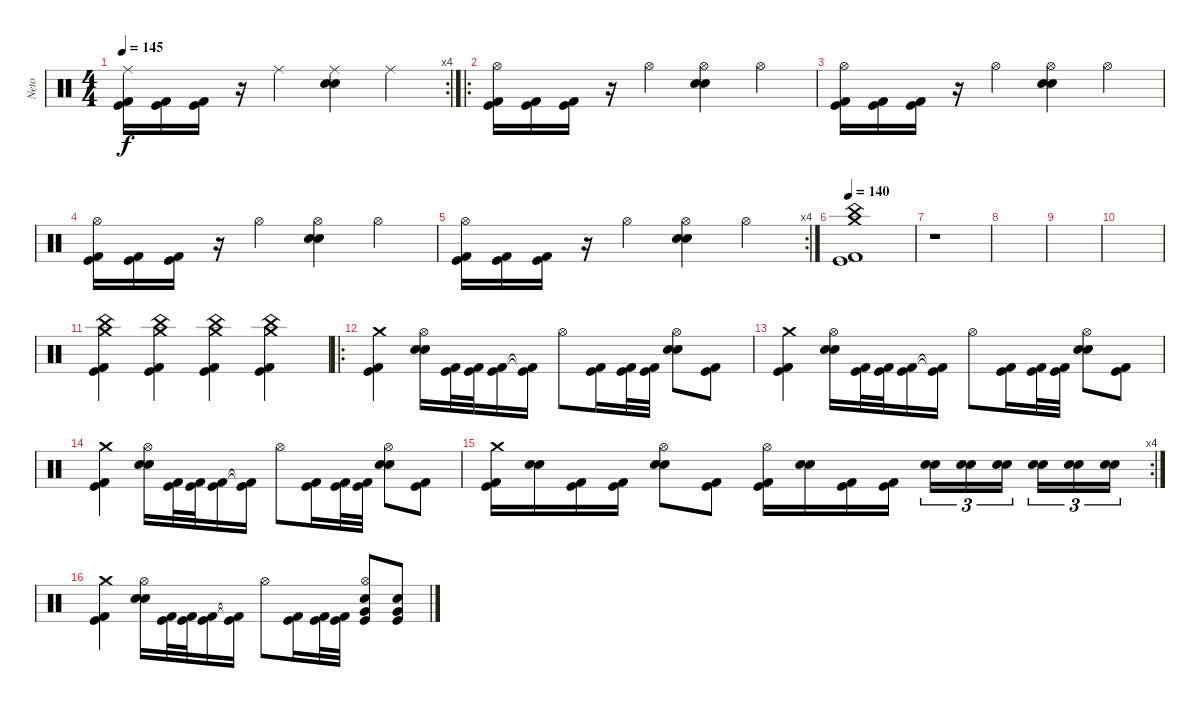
\track ("Neto" "Neto") {instrument percussion}
\staff {score}
\articulation defaults
\rc 4
\ts (4 4)
\tempo 145
\clef neutral
\ks c
("Ride (middle)" "Kick (hit)" "Kick (hit) 2").16{dy f} ("Kick (hit)" "Kick (hit) 2").16 ("Kick (hit)" "Kick (hit) 2").16 r.16 "Ride (middle)".4 ("Ride (middle)" "Snare (hit) 2" "Snare (hit) 2").4 "Ride (middle)".4 |
\ro
("Hi-Hat (open)" "Kick (hit)" "Kick (hit) 2").16 ("Kick (hit)" "Kick (hit) 2").16 ("Kick (hit)" "Kick (hit) 2").16 r.16 "Hi-Hat (open)".4 ("Hi-Hat (open)" "Snare (hit) 2" "Snare (hit) 2").4 "Hi-Hat (open)".4 |
("Hi-Hat (open)" "Kick (hit)" "Kick (hit) 2").16 ("Kick (hit)" "Kick (hit) 2").16 ("Kick (hit)" "Kick (hit) 2").16 r.16 "Hi-Hat (open)".4 ("Hi-Hat (open)" "Snare (hit) 2" "Snare (hit) 2").4 "Hi-Hat (open)".4 |
("Hi-Hat (open)" "Kick (hit)" "Kick (hit) 2").16 ("Kick (hit)" "Kick (hit) 2").16 ("Kick (hit)" "Kick (hit) 2").16 r.16 "Hi-Hat (open)".4 ("Hi-Hat (open)" "Snare (hit) 2" "Snare (hit) 2").4 "Hi-Hat (open)".4 |
\rc 4
("Hi-Hat (open)" "Kick (hit)" "Kick (hit) 2").16 ("Kick (hit)" "Kick (hit) 2").16 ("Kick (hit)" "Kick (hit) 2").16 r.16 "Hi-Hat (open)".4 ("Hi-Hat (open)" "Snare (hit) 2" "Snare (hit) 2").4 "Hi-Hat (open)".4 |
\tempo 140
("China (hit)" "Crash medium (hit)" "Kick (hit)" "Kick (hit) 2").1 |
r.1 |
|
|
|
("China (hit)" "Crash medium (hit)" "Kick (hit)" "Kick (hit) 2").4 ("China (hit)" "Crash medium (hit)" "Kick (hit)" "Kick (hit) 2").4 ("China (hit)" "Crash medium (hit)" "Kick (hit)" "Kick (hit) 2").4 ("China (hit)" "Crash medium (hit)" "Kick (hit)" "Kick (hit) 2").4 |
\ro
("Crash medium (hit)" "Kick (hit)" "Kick (hit) 2").4 ("Hi-Hat (open)" "Snare (hit) 2" "Snare (hit) 2").16 ("Kick (hit)" "Kick (hit) 2").32 ("Kick (hit)" "Kick (hit) 2").32 ("Kick (hit)" "Kick (hit) 2").16 ("Kick (hit)"{t} "Kick (hit) 2"{t}).16 "Hi-Hat (open)".8 ("Kick (hit)" "Kick (hit) 2").16 ("Kick (hit)" "Kick (hit) 2").32 ("Kick (hit)" "Kick (hit) 2").32 ("Hi-Hat (open)" "Snare (hit) 2" "Snare (hit) 2").8 ("Kick (hit)" "Kick (hit) 2").8 |
("Crash medium (hit)" "Kick (hit)" "Kick (hit) 2").4 ("Hi-Hat (open)" "Snare (hit) 2" "Snare (hit) 2").16 ("Kick (hit)" "Kick (hit) 2").32 ("Kick (hit)" "Kick (hit) 2").32 ("Kick (hit)" "Kick (hit) 2").16 ("Kick (hit)"{t} "Kick (hit) 2"{t}).16 "Hi-Hat (open)".8 ("Kick (hit)" "Kick (hit) 2").16 ("Kick (hit)" "Kick (hit) 2").32 ("Kick (hit)" "Kick (hit) 2").32 ("Hi-Hat (open)" "Snare (hit) 2" "Snare (hit) 2").8 ("Kick (hit)" "Kick (hit) 2").8 |
("Crash medium (hit)" "Kick (hit)" "Kick (hit) 2").4 ("Hi-Hat (open)" "Snare (hit) 2" "Snare (hit) 2").16 ("Kick (hit)" "Kick (hit) 2").32 ("Kick (hit)" "Kick (hit) 2").32 ("Kick (hit)" "Kick (hit) 2").16 ("Kick (hit)"{t} "Kick (hit) 2"{t}).16 "Hi-Hat (open)".8 ("Kick (hit)" "Kick (hit) 2").16 ("Kick (hit)" "Kick (hit) 2").32 ("Kick (hit)" "Kick (hit) 2").32 ("Hi-Hat (open)" "Snare (hit) 2" "Snare (hit) 2").8 ("Kick (hit)" "Kick (hit) 2").8 |
\rc 4
("Crash medium (hit)" "Kick (hit)" "Kick (hit) 2").16 ("Snare (hit) 2" "Snare (hit) 2").16 ("Kick (hit)" "Kick (hit) 2").16 ("Kick (hit)" "Kick (hit) 2").16 ("Hi-Hat (open)" "Snare (hit) 2" "Snare (hit) 2").8 ("Kick (hit)" "Kick (hit) 2").8 ("Hi-Hat (open)" "Kick (hit)" "Kick (hit) 2").16 ("Snare (hit) 2" "Snare (hit) 2").16 ("Kick (hit)" "Kick (hit) 2").16 ("Kick (hit)" "Kick (hit) 2").16 ("Snare (hit) 2" "Snare (hit) 2").16{tu (3 2)} ("Snare (hit) 2" "Snare (hit) 2").16{tu (3 2)} ("Snare (hit) 2" "Snare (hit) 2").16{tu (3 2)} ("Snare (hit) 2" "Snare (hit) 2").16{tu (3 2)} ("Snare (hit) 2" "Snare (hit) 2").16{tu (3 2)} ("Snare (hit) 2" "Snare (hit) 2").16{tu (3 2)} |
("Crash medium (hit)" "Kick (hit)" "Kick (hit) 2").4 ("Hi-Hat (open)" "Snare (hit) 2" "Snare (hit) 2").16 ("Kick (hit)" "Kick (hit) 2").32 ("Kick (hit)" "Kick (hit) 2").32 ("Kick (hit)" "Kick (hit) 2").16 ("Kick (hit)"{t} "Kick (hit) 2"{t}).16 "Hi-Hat (open)".8 ("Kick (hit)" "Kick (hit) 2").16 ("Kick (hit)" "Kick (hit) 2").32 ("Kick (hit)" "Kick (hit) 2").32 ("Hi-Hat (open)" "Kick (hit)" "Snare (hit) 2" "Very Low Tom (hit)").8 ("Kick (hit)" "Snare (hit) 2" "Very Low Tom (hit)").8
